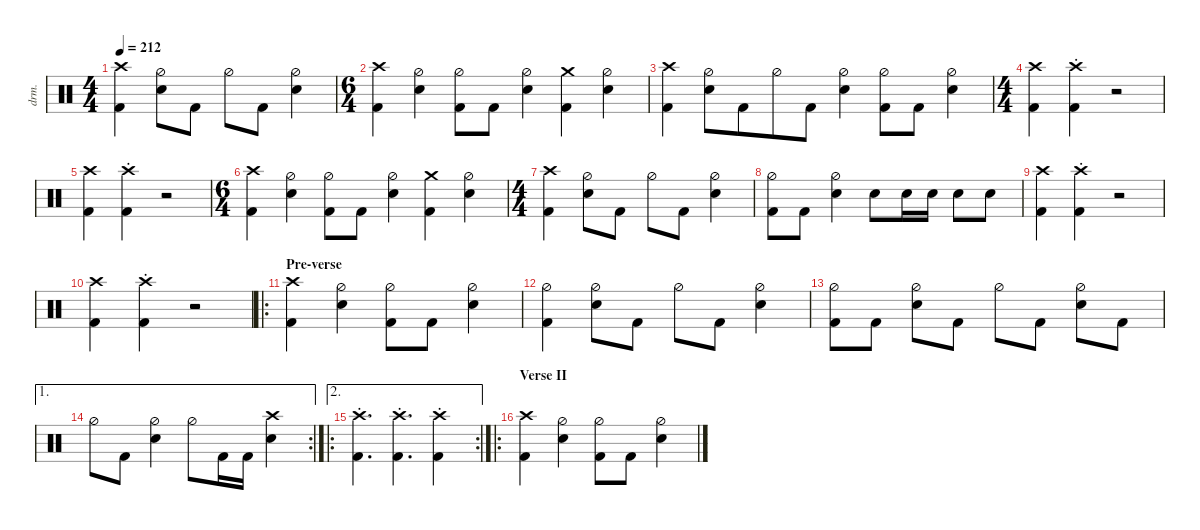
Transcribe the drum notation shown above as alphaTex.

\defaultSystemsLayout 4
\hideDynamics
\bracketExtendMode nobrackets
\track ("Drums" "drm.") {defaultSystemsLayout 4 multiBarRest instrument percussion}
\staff
\articulation defaults
\ts (4 4)
\beaming (8 2 2 2 2)
\tempo 212
\clef neutral
\ks c
("Crash high (hit)" "Kick (hit) 2").4{dy f} ("Hi-Hat (half)" "Snare (hit) 2").8 "Kick (hit) 2".8 "Hi-Hat (half)".8 "Kick (hit) 2".8 ("Hi-Hat (half)" "Snare (hit) 2").4 |
\ts (6 4)
\beaming (8 6 6)
("Crash high (hit)" "Kick (hit) 2").4 ("Hi-Hat (half)" "Snare (hit) 2").4 ("Hi-Hat (half)" "Kick (hit) 2").8 "Kick (hit) 2".8 ("Hi-Hat (half)" "Snare (hit) 2").4 ("Kick (hit) 2" "Crash medium (hit)").4 ("Hi-Hat (half)" "Snare (hit) 2").4 |
("Crash high (hit)" "Kick (hit) 2").4 ("Hi-Hat (half)" "Snare (hit) 2").8 "Kick (hit) 2".8 "Hi-Hat (half)".8 "Kick (hit) 2".8 ("Hi-Hat (half)" "Snare (hit) 2").4 ("Hi-Hat (half)" "Kick (hit) 2").8 "Kick (hit) 2".8 ("Hi-Hat (half)" "Snare (hit) 2").4 |
\ts (4 4)
\beaming (8 2 2 2 2)
("Kick (hit) 2" "Crash high (hit)").4{dy ff} ("Kick (hit) 2" "Crash high (hit)"{st}).4 r.2 |
("Kick (hit) 2" "Crash high (hit)").4 ("Kick (hit) 2" "Crash high (hit)"{st}).4 r.2 |
\ts (6 4)
\beaming (8 6 6)
("Crash high (hit)" "Kick (hit) 2").4{dy f} ("Hi-Hat (half)" "Snare (hit) 2").4 ("Hi-Hat (half)" "Kick (hit) 2").8 "Kick (hit) 2".8 ("Hi-Hat (half)" "Snare (hit) 2").4 ("Kick (hit) 2" "Crash medium (hit)").4 ("Hi-Hat (half)" "Snare (hit) 2").4 |
\ts (4 4)
\beaming (8 2 2 2 2)
("Crash high (hit)" "Kick (hit) 2").4 ("Hi-Hat (half)" "Snare (hit) 2").8 "Kick (hit) 2".8 "Hi-Hat (half)".8 "Kick (hit) 2".8 ("Hi-Hat (half)" "Snare (hit) 2").4 |
("Hi-Hat (half)" "Kick (hit) 2").8 "Kick (hit) 2".8 ("Hi-Hat (half)" "Snare (hit) 2").4 "Snare (hit) 2".8 "Snare (hit) 2".16{dy mp} "Snare (hit) 2".16 "Snare (hit) 2".8{dy f} "Snare (hit) 2".8 |
("Kick (hit) 2" "Crash high (hit)").4{dy ff} ("Kick (hit) 2" "Crash high (hit)"{st}).4 r.2 |
("Kick (hit) 2" "Crash high (hit)").4 ("Kick (hit) 2" "Crash high (hit)"{st}).4 r.2 |
\ro
\section ("" "Pre-verse")
("Crash high (hit)" "Kick (hit) 2").4{dy f} ("Hi-Hat (half)" "Snare (hit) 2").4 ("Hi-Hat (half)" "Kick (hit) 2").8 "Kick (hit) 2".8 ("Hi-Hat (half)" "Snare (hit) 2").4 |
("Kick (hit) 2" "Hi-Hat (half)").4 ("Hi-Hat (half)" "Snare (hit) 2").8 "Kick (hit) 2".8 "Hi-Hat (half)".8 "Kick (hit) 2".8 ("Hi-Hat (half)" "Snare (hit) 2").4 |
("Hi-Hat (half)" "Kick (hit) 2").8 "Kick (hit) 2".8 ("Hi-Hat (half)" "Snare (hit) 2").8 "Kick (hit) 2".8 "Hi-Hat (half)".8 "Kick (hit) 2".8 ("Hi-Hat (half)" "Snare (hit) 2").8 "Kick (hit) 2".8 |
\ae 1
\rc 2 "Hi-Hat (half)".8 "Kick (hit) 2".8
("Hi-Hat (half)" "Snare (hit) 2").4 "Hi-Hat (half)".8 "Kick (hit) 2".16 "Kick (hit) 2".16 ("Snare (hit) 2" "Crash high (hit)").4 |
\ae 2
\ro
\rc 2
("Kick (hit) 2" "Crash high (hit)"{st}).4{d dy ff} ("Kick (hit) 2" "Crash high (hit)"{st}).4{d} ("Kick (hit) 2" "Crash high (hit)"{st}).4 |
\ro
\section ("" "Verse II")
("Crash high (hit)" "Kick (hit) 2").4{dy f} ("Hi-Hat (half)" "Snare (hit) 2").4 ("Hi-Hat (half)" "Kick (hit) 2").8 "Kick (hit) 2".8 ("Hi-Hat (half)" "Snare (hit) 2").4
